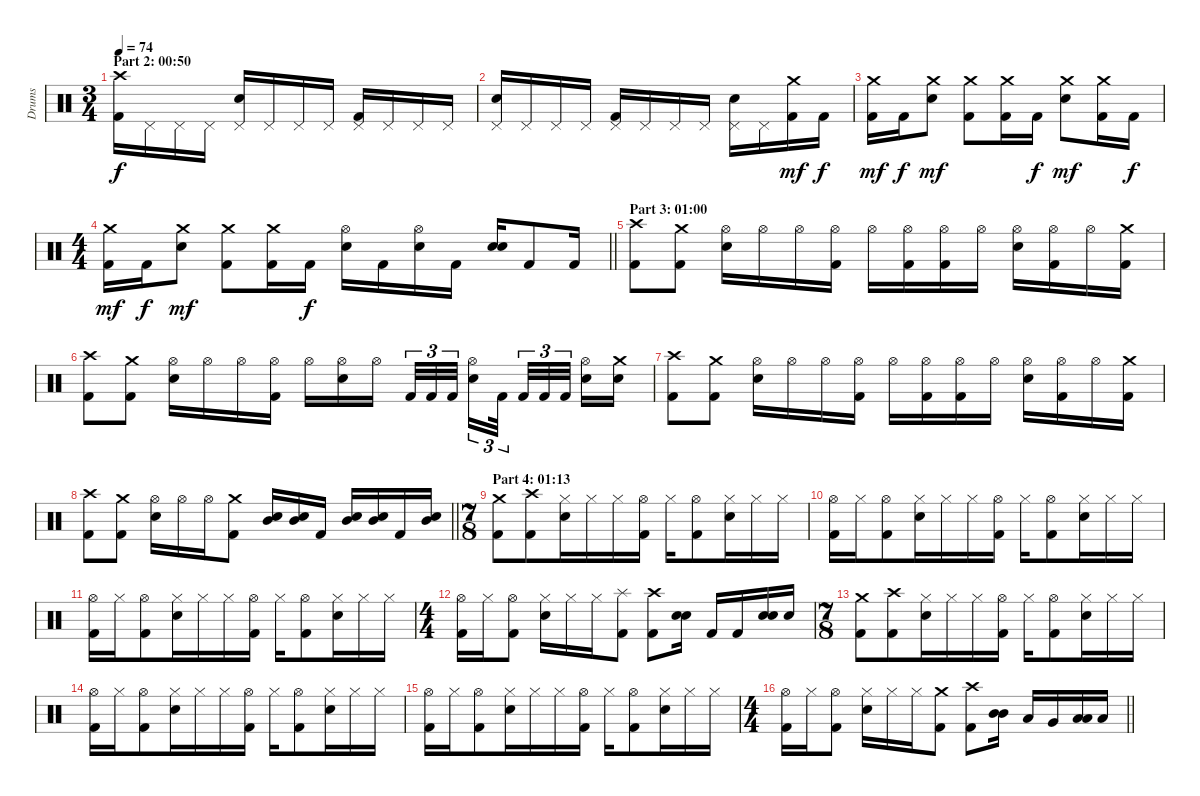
\track ("Drums" "Drums") {instrument percussion}
\staff {score}
\articulation defaults
\ts (3 4)
\section ("" "Part 2: 00:50")
\tempo 74
\clef neutral
\ks c
("Crash high (hit)" "Kick (hit) 2").16{dy f} "Pedal Hi-Hat (hit)".16 "Pedal Hi-Hat (hit)".16 "Pedal Hi-Hat (hit)".16 ("Pedal Hi-Hat (hit)" "Electric Snare (hit)").16 "Pedal Hi-Hat (hit)".16 "Pedal Hi-Hat (hit)".16 "Pedal Hi-Hat (hit)".16 ("Pedal Hi-Hat (hit)" "Kick (hit) 2").16 "Pedal Hi-Hat (hit)".16 "Pedal Hi-Hat (hit)".16 "Pedal Hi-Hat (hit)".16 |
("Pedal Hi-Hat (hit)" "Electric Snare (hit)").16 "Pedal Hi-Hat (hit)".16 "Pedal Hi-Hat (hit)".16 "Pedal Hi-Hat (hit)".16 ("Pedal Hi-Hat (hit)" "Kick (hit) 2").16 "Pedal Hi-Hat (hit)".16 "Pedal Hi-Hat (hit)".16 "Pedal Hi-Hat (hit)".16 ("Pedal Hi-Hat (hit)" "Electric Snare (hit)").16 "Pedal Hi-Hat (hit)".16 ("Crash medium (hit)" "Kick (hit) 2").16{dy mf} "Kick (hit) 2".16{dy f} |
("Crash medium (hit)" "Kick (hit) 2").16{dy mf} "Kick (hit) 2".16{dy f} ("Crash medium (hit)" "Electric Snare (hit)").8{dy mf} ("Crash medium (hit)" "Kick (hit) 2").8 ("Crash medium (hit)" "Kick (hit) 2").16 "Kick (hit) 2".16{dy f} ("Crash medium (hit)" "Electric Snare (hit)").8{dy mf} ("Crash medium (hit)" "Kick (hit) 2").16 "Kick (hit) 2".16{dy f} |
\ts (4 4)
\barLineRight lightlight
("Crash medium (hit)" "Kick (hit) 2").16{dy mf} "Kick (hit) 2".16{dy f} ("Crash medium (hit)" "Electric Snare (hit)").8{dy mf} ("Crash medium (hit)" "Kick (hit) 2").8 ("Crash medium (hit)" "Kick (hit) 2").16 "Kick (hit) 2".16{dy f} ("Hi-Hat (open)" "Electric Snare (hit)").16 "Kick (hit) 2".16 ("Hi-Hat (open)" "Electric Snare (hit)").16 "Kick (hit) 2".16 ("Electric Snare (hit)" "Electric Snare (hit)").16{bd 120} "Kick (hit) 2".8 "Kick (hit) 2".16 |
\section ("" "Part 3: 01:00")
("Crash high (hit)" "Kick (hit) 2").8 ("Crash medium (hit)" "Kick (hit) 2").8 ("Hi-Hat (open)" "Electric Snare (hit)").16 "Hi-Hat (open)".16 "Hi-Hat (open)".16 ("Hi-Hat (open)" "Kick (hit) 2").16 "Hi-Hat (open)".16 ("Hi-Hat (open)" "Kick (hit) 2").16 ("Hi-Hat (open)" "Kick (hit) 2").16 "Hi-Hat (open)".16 ("Hi-Hat (open)" "Electric Snare (hit)").16 ("Hi-Hat (open)" "Kick (hit) 2").16 "Hi-Hat (open)".16 ("Crash medium (hit)" "Kick (hit) 2").16 |
("Crash high (hit)" "Kick (hit) 2").8 ("Crash medium (hit)" "Kick (hit) 2").8 ("Hi-Hat (open)" "Electric Snare (hit)").16 "Hi-Hat (open)".16 "Hi-Hat (open)".16 ("Hi-Hat (open)" "Kick (hit) 2").16 "Hi-Hat (open)".16 ("Hi-Hat (open)" "Electric Snare (hit)").16 "Hi-Hat (open)".16{beam splitsecondary} "Kick (hit) 2".32{tu (3 2)} "Kick (hit) 2".32{tu (3 2)} "Kick (hit) 2".32{tu (3 2)} ("Hi-Hat (open)" "Electric Snare (hit)").16{tu (3 2)} "Kick (hit) 2".32{tu (3 2) beam splitsecondary} "Kick (hit) 2".32{tu (3 2)} "Kick (hit) 2".32{tu (3 2)} "Kick (hit) 2".32{tu (3 2) beam splitsecondary} ("Hi-Hat (open)" "Electric Snare (hit)").16 ("Crash medium (hit)" "Electric Snare (hit)").16 |
("Crash high (hit)" "Kick (hit) 2").8 ("Crash medium (hit)" "Kick (hit) 2").8 ("Hi-Hat (open)" "Electric Snare (hit)").16 "Hi-Hat (open)".16 "Hi-Hat (open)".16 ("Hi-Hat (open)" "Kick (hit) 2").16 "Hi-Hat (open)".16 ("Hi-Hat (open)" "Kick (hit) 2").16 ("Hi-Hat (open)" "Kick (hit) 2").16 "Hi-Hat (open)".16 ("Hi-Hat (open)" "Electric Snare (hit)").16 ("Hi-Hat (open)" "Kick (hit) 2").16 "Hi-Hat (open)".16 ("Crash medium (hit)" "Kick (hit) 2").16 |
\barLineRight lightlight
("Crash high (hit)" "Kick (hit) 2").8 ("Crash medium (hit)" "Kick (hit) 2").8 ("Hi-Hat (open)" "Electric Snare (hit)").16 "Hi-Hat (open)".16 "Hi-Hat (open)".16 ("Crash medium (hit)" "Kick (hit) 2").8 ("Mid Tom (hit)" "Electric Snare (hit)").16 ("Mid Tom (hit)" "Electric Snare (hit)").16 "Kick (hit) 2".16 ("Mid Tom (hit)" "Electric Snare (hit)").16 ("Mid Tom (hit)" "Electric Snare (hit)").16 "Kick (hit) 2".16 ("Mid Tom (hit)" "Electric Snare (hit)").16 |
\ts (7 8)
\section ("" "Part 4: 01:13")
("Crash medium (hit)" "Kick (hit) 2").8 ("Crash high (hit)" "Kick (hit) 2").8 ("Hi-Hat (closed)" "Electric Snare (hit)").16 "Hi-Hat (closed)".16 "Hi-Hat (closed)".16 ("Hi-Hat (open)" "Kick (hit) 2").16 "Hi-Hat (closed)".16 ("Hi-Hat (open)" "Kick (hit) 2").8 ("Hi-Hat (closed)" "Electric Snare (hit)").16 "Hi-Hat (closed)".16 "Hi-Hat (closed)".16 |
("Hi-Hat (open)" "Kick (hit) 2").16 "Hi-Hat (closed)".16 ("Hi-Hat (open)" "Kick (hit) 2").8 ("Hi-Hat (closed)" "Electric Snare (hit)").16 "Hi-Hat (closed)".16 "Hi-Hat (closed)".16 ("Hi-Hat (open)" "Kick (hit) 2").16 "Hi-Hat (closed)".16 ("Hi-Hat (open)" "Kick (hit) 2").8 ("Hi-Hat (closed)" "Electric Snare (hit)").16 "Hi-Hat (closed)".16 "Hi-Hat (closed)".16 |
("Hi-Hat (open)" "Kick (hit) 2").16 "Hi-Hat (closed)".16 ("Hi-Hat (open)" "Kick (hit) 2").8 ("Hi-Hat (closed)" "Electric Snare (hit)").16 "Hi-Hat (closed)".16 "Hi-Hat (closed)".16 ("Hi-Hat (open)" "Kick (hit) 2").16 "Hi-Hat (closed)".16 ("Hi-Hat (open)" "Kick (hit) 2").8 ("Hi-Hat (closed)" "Electric Snare (hit)").16 "Hi-Hat (closed)".16 "Hi-Hat (closed)".16 |
\ts (4 4)
("Hi-Hat (open)" "Kick (hit) 2").16 "Hi-Hat (closed)".16 ("Hi-Hat (open)" "Kick (hit) 2").8 ("Hi-Hat (closed)" "Electric Snare (hit)").16 "Hi-Hat (closed)".16 "Hi-Hat (closed)".16 ("Splash (hit)" "Kick (hit) 2").8 ("Crash high (hit)" "Kick (hit) 2").8 ("Electric Snare (hit)" "Electric Snare (hit)").16{bd 120} "Kick (hit) 2".16 "Kick (hit) 2".16 ("Electric Snare (hit)" "Electric Snare (hit)").16{bd 120} "Electric Snare (hit)".16 |
\ts (7 8)
("Crash medium (hit)" "Kick (hit) 2").8 ("Crash high (hit)" "Kick (hit) 2").8 ("Hi-Hat (closed)" "Electric Snare (hit)").16 "Hi-Hat (closed)".16 "Hi-Hat (closed)".16 ("Hi-Hat (open)" "Kick (hit) 2").16 "Hi-Hat (closed)".16 ("Hi-Hat (open)" "Kick (hit) 2").8 ("Hi-Hat (closed)" "Electric Snare (hit)").16 "Hi-Hat (closed)".16 "Hi-Hat (closed)".16 |
("Hi-Hat (open)" "Kick (hit) 2").16 "Hi-Hat (closed)".16 ("Hi-Hat (open)" "Kick (hit) 2").8 ("Hi-Hat (closed)" "Electric Snare (hit)").16 "Hi-Hat (closed)".16 "Hi-Hat (closed)".16 ("Hi-Hat (open)" "Kick (hit) 2").16 "Hi-Hat (closed)".16 ("Hi-Hat (open)" "Kick (hit) 2").8 ("Hi-Hat (closed)" "Electric Snare (hit)").16 "Hi-Hat (closed)".16 "Hi-Hat (closed)".16 |
("Hi-Hat (open)" "Kick (hit) 2").16 "Hi-Hat (closed)".16 ("Hi-Hat (open)" "Kick (hit) 2").8 ("Hi-Hat (closed)" "Electric Snare (hit)").16 "Hi-Hat (closed)".16 "Hi-Hat (closed)".16 ("Hi-Hat (open)" "Kick (hit) 2").16 "Hi-Hat (closed)".16 ("Hi-Hat (open)" "Kick (hit) 2").8 ("Hi-Hat (closed)" "Electric Snare (hit)").16 "Hi-Hat (closed)".16 "Hi-Hat (closed)".16 |
\ts (4 4)
\barLineRight lightlight
("Hi-Hat (open)" "Kick (hit) 2").16 "Hi-Hat (closed)".16 ("Hi-Hat (open)" "Kick (hit) 2").8 ("Hi-Hat (closed)" "Electric Snare (hit)").16 "Hi-Hat (closed)".16 "Hi-Hat (closed)".16 ("Crash medium (hit)" "Kick (hit) 2").8 ("Crash high (hit)" "Kick (hit) 2").8 ("Mid Tom (hit)" "Mid Tom (hit)").16{bd 120} "Low Tom (hit)".16 "Very Low Tom (hit)".16 ("Low Floor Tom (hit)" "Low Floor Tom (hit)").16{bd 60} "Low Floor Tom (hit)".16
